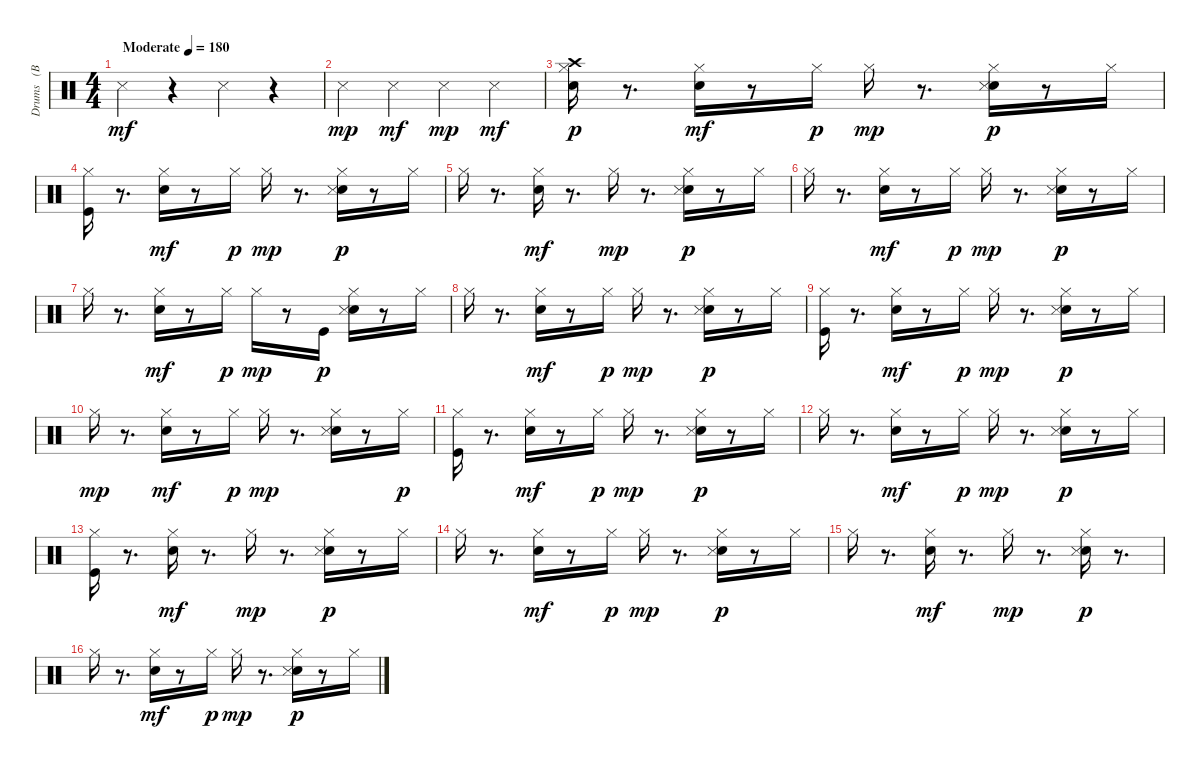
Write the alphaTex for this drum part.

\track ("Drums   (BB)" "Drums   (B") {instrument percussion}
\staff {score}
\articulation defaults
\ts (4 4)
\tempo (180 "Moderate")
\clef neutral
\ks c "Snare (side stick) 3".4{dy mf}
r.4 "Snare (side stick) 3".4 r.4 |
"Snare (side stick) 3".4{dy mp} "Snare (side stick) 3".4{dy mf} "Snare (side stick) 3".4{dy mp} "Snare (side stick) 3".4{dy mf} |
("Snare (hit) 2" "Hi-Hat (closed)" "Crash high (hit)").16{dy p} r.8{d} ("Snare (hit) 2" "Hi-Hat (closed)").16{dy mf} r.8 "Hi-Hat (closed)".16{dy p} "Hi-Hat (closed)".16{dy mp} r.8{d} ("Snare (hit) 2" "Hi-Hat (closed)" "Snare (side stick) 3").16{dy p} r.8 "Hi-Hat (closed)".16 |
("Kick (hit)" "Hi-Hat (closed)").16 r.8{d} ("Snare (hit) 2" "Hi-Hat (closed)").16{dy mf} r.8 "Hi-Hat (closed)".16{dy p} "Hi-Hat (closed)".16{dy mp} r.8{d} ("Snare (hit) 2" "Hi-Hat (closed)" "Snare (side stick) 3").16{dy p} r.8 "Hi-Hat (closed)".16 |
"Hi-Hat (closed)".16 r.8{d} ("Snare (hit) 2" "Hi-Hat (closed)").16{dy mf} r.8{d} "Hi-Hat (closed)".16{dy mp} r.8{d} ("Snare (hit) 2" "Hi-Hat (closed)" "Snare (side stick) 3").16{dy p} r.8 "Hi-Hat (closed)".16 |
"Hi-Hat (closed)".16 r.8{d} ("Snare (hit) 2" "Hi-Hat (closed)").16{dy mf} r.8 "Hi-Hat (closed)".16{dy p} "Hi-Hat (closed)".16{dy mp} r.8{d} ("Snare (hit) 2" "Hi-Hat (closed)" "Snare (side stick) 3").16{dy p} r.8 "Hi-Hat (closed)".16 |
"Hi-Hat (closed)".16 r.8{d} ("Snare (hit) 2" "Hi-Hat (closed)").16{dy mf} r.8 "Hi-Hat (closed)".16{dy p} "Hi-Hat (closed)".16{dy mp} r.8 "Kick (hit)".16{dy p} ("Snare (hit) 2" "Hi-Hat (closed)" "Snare (side stick) 3").16 r.8 "Hi-Hat (closed)".16 |
"Hi-Hat (closed)".16 r.8{d} ("Snare (hit) 2" "Hi-Hat (closed)").16{dy mf} r.8 "Hi-Hat (closed)".16{dy p} "Hi-Hat (closed)".16{dy mp} r.8{d} ("Snare (hit) 2" "Hi-Hat (closed)" "Snare (side stick) 3").16{dy p} r.8 "Hi-Hat (closed)".16 |
("Kick (hit)" "Hi-Hat (closed)").16 r.8{d} ("Snare (hit) 2" "Hi-Hat (closed)").16{dy mf} r.8 "Hi-Hat (closed)".16{dy p} "Hi-Hat (closed)".16{dy mp} r.8{d} ("Snare (hit) 2" "Hi-Hat (closed)" "Snare (side stick) 3").16{dy p} r.8 "Hi-Hat (closed)".16 |
"Hi-Hat (closed)".16{dy mp} r.8{d} ("Snare (hit) 2" "Hi-Hat (closed)").16{dy mf} r.8 "Hi-Hat (closed)".16{dy p} "Hi-Hat (closed)".16{dy mp} r.8{d} ("Snare (hit) 2" "Hi-Hat (closed)" "Snare (side stick) 3").16 r.8 "Hi-Hat (closed)".16{dy p} |
("Kick (hit)" "Hi-Hat (closed)").16 r.8{d} ("Snare (hit) 2" "Hi-Hat (closed)").16{dy mf} r.8 "Hi-Hat (closed)".16{dy p} "Hi-Hat (closed)".16{dy mp} r.8{d} ("Snare (hit) 2" "Hi-Hat (closed)" "Snare (side stick) 3").16{dy p} r.8 "Hi-Hat (closed)".16 |
"Hi-Hat (closed)".16 r.8{d} ("Snare (hit) 2" "Hi-Hat (closed)").16{dy mf} r.8 "Hi-Hat (closed)".16{dy p} "Hi-Hat (closed)".16{dy mp} r.8{d} ("Snare (hit) 2" "Hi-Hat (closed)" "Snare (side stick) 3").16{dy p} r.8 "Hi-Hat (closed)".16 |
("Kick (hit)" "Hi-Hat (closed)").16 r.8{d} ("Snare (hit) 2" "Hi-Hat (closed)").16{dy mf} r.8{d} "Hi-Hat (closed)".16{dy mp} r.8{d} ("Snare (hit) 2" "Hi-Hat (closed)" "Snare (side stick) 3").16{dy p} r.8 "Hi-Hat (closed)".16 |
"Hi-Hat (closed)".16 r.8{d} ("Snare (hit) 2" "Hi-Hat (closed)").16{dy mf} r.8 "Hi-Hat (closed)".16{dy p} "Hi-Hat (closed)".16{dy mp} r.8{d} ("Snare (hit) 2" "Hi-Hat (closed)" "Snare (side stick) 3").16{dy p} r.8 "Hi-Hat (closed)".16 |
"Hi-Hat (closed)".16 r.8{d} ("Snare (hit) 2" "Hi-Hat (closed)").16{dy mf} r.8{d} "Hi-Hat (closed)".16{dy mp} r.8{d} ("Snare (hit) 2" "Hi-Hat (closed)" "Snare (side stick) 3").16{dy p} r.8{d} |
"Hi-Hat (closed)".16 r.8{d} ("Snare (hit) 2" "Hi-Hat (closed)").16{dy mf} r.8 "Hi-Hat (closed)".16{dy p} "Hi-Hat (closed)".16{dy mp} r.8{d} ("Snare (hit) 2" "Hi-Hat (closed)" "Snare (side stick) 3").16{dy p} r.8 "Hi-Hat (closed)".16
